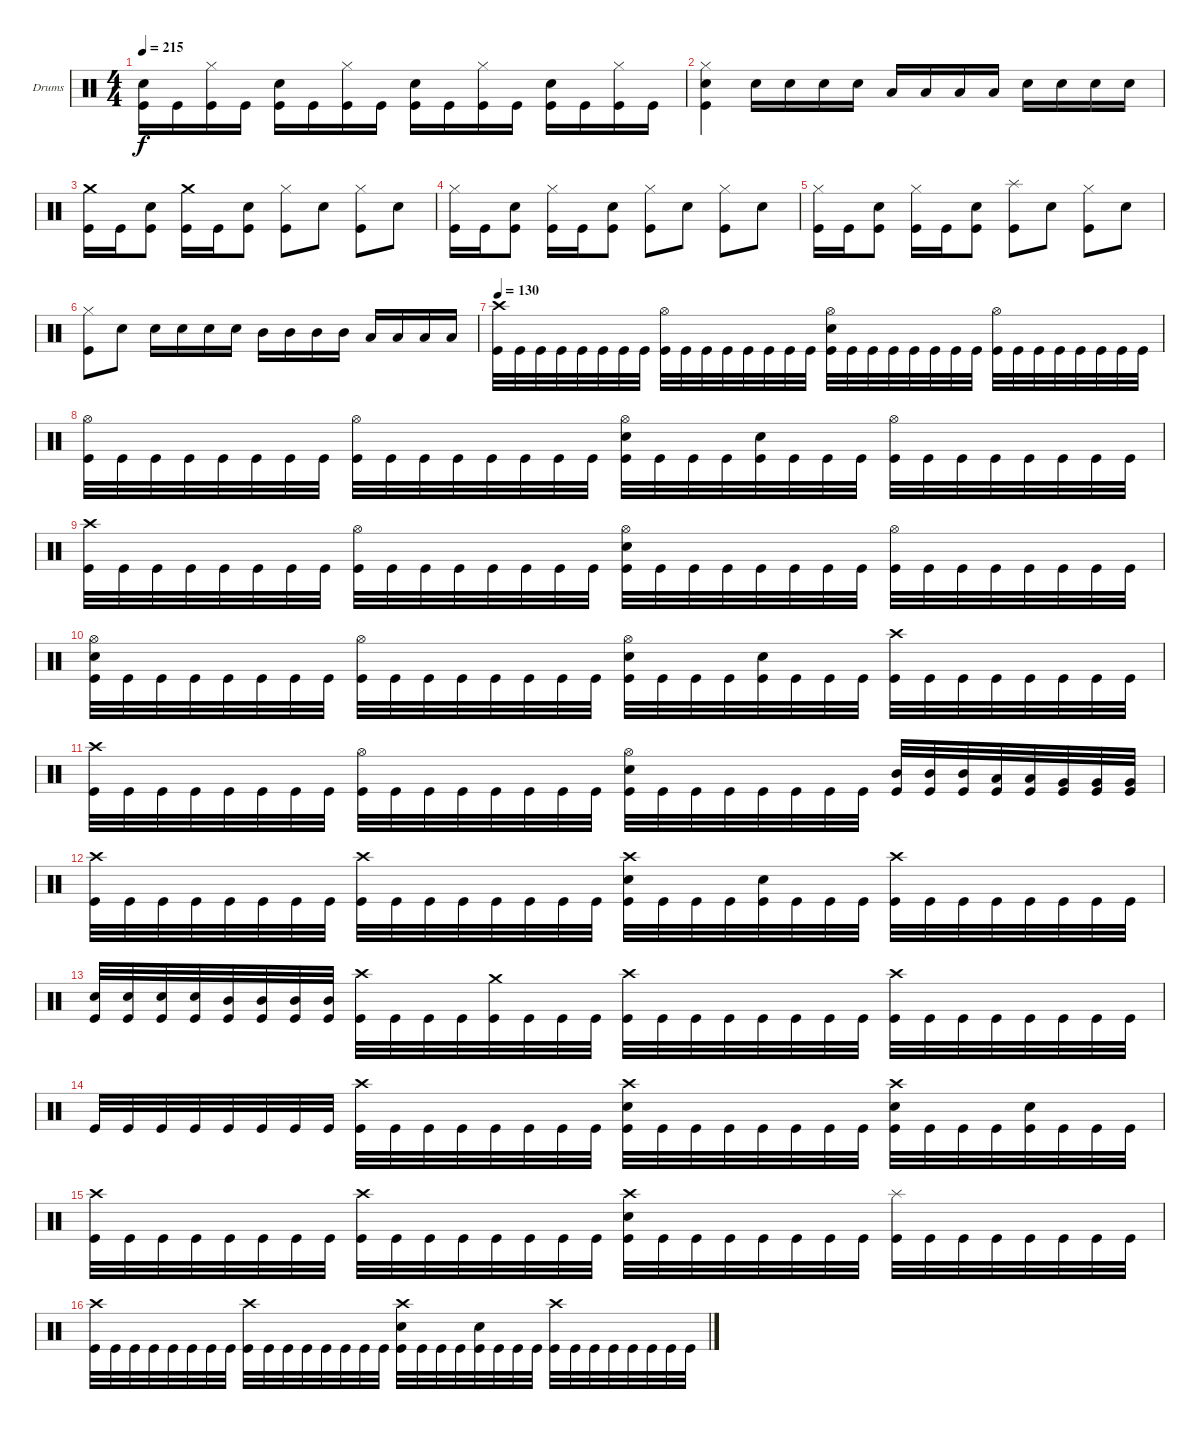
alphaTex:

\defaultSystemsLayout 4
\bracketExtendMode groupsimilarinstruments
\firstSystemTrackNameOrientation horizontal
\otherSystemsTrackNameOrientation horizontal
\track ("Trey Williams" "Drums") {instrument percussion}
\staff {score}
\articulation defaults
\ts (4 4)
\tempo 215
\clef neutral
\ks c
("Kick (hit)" "Snare (hit) 2").16{dy f} "Kick (hit)".16 ("Kick (hit)" "Hi-Hat (closed)").16 "Kick (hit)".16 ("Kick (hit)" "Snare (hit) 2").16 "Kick (hit)".16 ("Kick (hit)" "Hi-Hat (closed)").16 "Kick (hit)".16 ("Kick (hit)" "Snare (hit) 2").16 "Kick (hit)".16 ("Kick (hit)" "Hi-Hat (closed)").16 "Kick (hit)".16 ("Kick (hit)" "Snare (hit) 2").16 "Kick (hit)".16 ("Kick (hit)" "Hi-Hat (closed)").16 "Kick (hit)".16 |
("Kick (hit)" "Snare (hit) 2" "Hi-Hat (closed)").4 "Snare (hit) 2".16 "Snare (hit) 2".16 "Snare (hit) 2".16 "Snare (hit) 2".16 "Low Tom (hit)".16 "Low Tom (hit)".16 "Low Tom (hit)".16 "Low Tom (hit)".16 "Snare (hit) 2".16 "Snare (hit) 2".16 "Snare (hit) 2".16 "Snare (hit) 2".16 |
("Kick (hit)" "Crash medium (hit)").16 "Kick (hit)".16 ("Kick (hit)" "Snare (hit) 2").8 ("Kick (hit)" "Crash medium (hit)").16 "Kick (hit)".16 ("Kick (hit)" "Snare (hit) 2").8 ("Hi-Hat (closed)" "Kick (hit)").8 "Snare (hit) 2".8 ("Hi-Hat (closed)" "Kick (hit)").8 "Snare (hit) 2".8 |
("Kick (hit)" "Hi-Hat (closed)").16 "Kick (hit)".16 ("Kick (hit)" "Snare (hit) 2").8 ("Kick (hit)" "Hi-Hat (closed)").16 "Kick (hit)".16 ("Kick (hit)" "Snare (hit) 2").8 ("Hi-Hat (closed)" "Kick (hit)").8 "Snare (hit) 2".8 ("Hi-Hat (closed)" "Kick (hit)").8 "Snare (hit) 2".8 |
("Kick (hit)" "Hi-Hat (closed)").16 "Kick (hit)".16 ("Kick (hit)" "Snare (hit) 2").8 ("Kick (hit)" "Hi-Hat (closed)").16 "Kick (hit)".16 ("Kick (hit)" "Snare (hit) 2").8 ("Kick (hit)" "Splash (hit)").8 "Snare (hit) 2".8 ("Hi-Hat (closed)" "Kick (hit)").8 "Snare (hit) 2".8 |
("Kick (hit)" "Hi-Hat (closed)").8 "Snare (hit) 2".8 "Snare (hit) 2".16 "Snare (hit) 2".16 "Snare (hit) 2".16 "Snare (hit) 2".16 "Mid Tom (hit)".16 "Mid Tom (hit)".16 "Mid Tom (hit)".16 "Mid Tom (hit)".16 "Low Tom (hit)".16 "Low Tom (hit)".16 "Low Tom (hit)".16 "Low Tom (hit)".16 |
\tempo 130
("Kick (hit)" "Crash high (hit)").32 "Kick (hit)".32 "Kick (hit)".32 "Kick (hit)".32 "Kick (hit)".32 "Kick (hit)".32 "Kick (hit)".32 "Kick (hit)".32 ("Kick (hit)" "Hi-Hat (open)").32 "Kick (hit)".32 "Kick (hit)".32 "Kick (hit)".32 "Kick (hit)".32 "Kick (hit)".32 "Kick (hit)".32 "Kick (hit)".32 ("Kick (hit)" "Hi-Hat (open)" "Snare (hit) 2").32 "Kick (hit)".32 "Kick (hit)".32 "Kick (hit)".32 "Kick (hit)".32 "Kick (hit)".32 "Kick (hit)".32 "Kick (hit)".32 ("Kick (hit)" "Hi-Hat (open)").32 "Kick (hit)".32 "Kick (hit)".32 "Kick (hit)".32 "Kick (hit)".32 "Kick (hit)".32 "Kick (hit)".32 "Kick (hit)".32 |
("Kick (hit)" "Hi-Hat (open)").32 "Kick (hit)".32 "Kick (hit)".32 "Kick (hit)".32 "Kick (hit)".32 "Kick (hit)".32 "Kick (hit)".32 "Kick (hit)".32 ("Kick (hit)" "Hi-Hat (open)").32 "Kick (hit)".32 "Kick (hit)".32 "Kick (hit)".32 "Kick (hit)".32 "Kick (hit)".32 "Kick (hit)".32 "Kick (hit)".32 ("Kick (hit)" "Hi-Hat (open)" "Snare (hit) 2").32 "Kick (hit)".32 "Kick (hit)".32 "Kick (hit)".32 ("Kick (hit)" "Snare (hit) 2").32 "Kick (hit)".32 "Kick (hit)".32 "Kick (hit)".32 ("Kick (hit)" "Hi-Hat (open)").32 "Kick (hit)".32 "Kick (hit)".32 "Kick (hit)".32 "Kick (hit)".32 "Kick (hit)".32 "Kick (hit)".32 "Kick (hit)".32 |
("Kick (hit)" "Crash high (hit)").32 "Kick (hit)".32 "Kick (hit)".32 "Kick (hit)".32 "Kick (hit)".32 "Kick (hit)".32 "Kick (hit)".32 "Kick (hit)".32 ("Kick (hit)" "Hi-Hat (open)").32 "Kick (hit)".32 "Kick (hit)".32 "Kick (hit)".32 "Kick (hit)".32 "Kick (hit)".32 "Kick (hit)".32 "Kick (hit)".32 ("Kick (hit)" "Hi-Hat (open)" "Snare (hit) 2").32 "Kick (hit)".32 "Kick (hit)".32 "Kick (hit)".32 "Kick (hit)".32 "Kick (hit)".32 "Kick (hit)".32 "Kick (hit)".32 ("Kick (hit)" "Hi-Hat (open)").32 "Kick (hit)".32 "Kick (hit)".32 "Kick (hit)".32 "Kick (hit)".32 "Kick (hit)".32 "Kick (hit)".32 "Kick (hit)".32 |
("Kick (hit)" "Hi-Hat (open)" "Snare (hit) 2").32 "Kick (hit)".32 "Kick (hit)".32 "Kick (hit)".32 "Kick (hit)".32 "Kick (hit)".32 "Kick (hit)".32 "Kick (hit)".32 ("Kick (hit)" "Hi-Hat (open)").32 "Kick (hit)".32 "Kick (hit)".32 "Kick (hit)".32 "Kick (hit)".32 "Kick (hit)".32 "Kick (hit)".32 "Kick (hit)".32 ("Kick (hit)" "Hi-Hat (open)" "Snare (hit) 2").32 "Kick (hit)".32 "Kick (hit)".32 "Kick (hit)".32 ("Kick (hit)" "Snare (hit) 2").32 "Kick (hit)".32 "Kick (hit)".32 "Kick (hit)".32 ("Kick (hit)" "Crash high (hit)").32 "Kick (hit)".32 "Kick (hit)".32 "Kick (hit)".32 "Kick (hit)".32 "Kick (hit)".32 "Kick (hit)".32 "Kick (hit)".32 |
("Kick (hit)" "Crash high (hit)").32 "Kick (hit)".32 "Kick (hit)".32 "Kick (hit)".32 "Kick (hit)".32 "Kick (hit)".32 "Kick (hit)".32 "Kick (hit)".32 ("Kick (hit)" "Hi-Hat (open)").32 "Kick (hit)".32 "Kick (hit)".32 "Kick (hit)".32 "Kick (hit)".32 "Kick (hit)".32 "Kick (hit)".32 "Kick (hit)".32 ("Kick (hit)" "Hi-Hat (open)" "Snare (hit) 2").32 "Kick (hit)".32 "Kick (hit)".32 "Kick (hit)".32 "Kick (hit)".32 "Kick (hit)".32 "Kick (hit)".32 "Kick (hit)".32 ("Kick (hit)" "Mid Tom (hit)").32 ("Kick (hit)" "Mid Tom (hit)").32 ("Kick (hit)" "Mid Tom (hit)").32 ("Kick (hit)" "Low Tom (hit)").32 ("Kick (hit)" "Low Tom (hit)").32 ("Kick (hit)" "Very Low Tom (hit)").32 ("Kick (hit)" "Very Low Tom (hit)").32 ("Kick (hit)" "Very Low Tom (hit)").32 |
("Kick (hit)" "Crash high (hit)").32 "Kick (hit)".32 "Kick (hit)".32 "Kick (hit)".32 "Kick (hit)".32 "Kick (hit)".32 "Kick (hit)".32 "Kick (hit)".32 ("Kick (hit)" "Crash high (hit)").32 "Kick (hit)".32 "Kick (hit)".32 "Kick (hit)".32 "Kick (hit)".32 "Kick (hit)".32 "Kick (hit)".32 "Kick (hit)".32 ("Kick (hit)" "Snare (hit) 2" "Crash high (hit)").32 "Kick (hit)".32 "Kick (hit)".32 "Kick (hit)".32 ("Kick (hit)" "Snare (hit) 2").32 "Kick (hit)".32 "Kick (hit)".32 "Kick (hit)".32 ("Kick (hit)" "Crash high (hit)").32 "Kick (hit)".32 "Kick (hit)".32 "Kick (hit)".32 "Kick (hit)".32 "Kick (hit)".32 "Kick (hit)".32 "Kick (hit)".32 |
("Kick (hit)" "Snare (hit) 2").32 ("Kick (hit)" "Snare (hit) 2").32 ("Kick (hit)" "Snare (hit) 2").32 ("Kick (hit)" "Snare (hit) 2").32 ("Kick (hit)" "Mid Tom (hit)").32 ("Kick (hit)" "Mid Tom (hit)").32 ("Kick (hit)" "Mid Tom (hit)").32 ("Kick (hit)" "Mid Tom (hit)").32 ("Kick (hit)" "Crash high (hit)").32 "Kick (hit)".32 "Kick (hit)".32 "Kick (hit)".32 ("Kick (hit)" "Crash medium (hit)").32 "Kick (hit)".32 "Kick (hit)".32 "Kick (hit)".32 ("Kick (hit)" "Crash high (hit)").32 "Kick (hit)".32 "Kick (hit)".32 "Kick (hit)".32 "Kick (hit)".32 "Kick (hit)".32 "Kick (hit)".32 "Kick (hit)".32 ("Kick (hit)" "Crash high (hit)").32 "Kick (hit)".32 "Kick (hit)".32 "Kick (hit)".32 "Kick (hit)".32 "Kick (hit)".32 "Kick (hit)".32 "Kick (hit)".32 |
"Kick (hit)".32 "Kick (hit)".32 "Kick (hit)".32 "Kick (hit)".32 "Kick (hit)".32 "Kick (hit)".32 "Kick (hit)".32 "Kick (hit)".32 ("Kick (hit)" "Crash high (hit)").32 "Kick (hit)".32 "Kick (hit)".32 "Kick (hit)".32 "Kick (hit)".32 "Kick (hit)".32 "Kick (hit)".32 "Kick (hit)".32 ("Kick (hit)" "Snare (hit) 2" "Crash high (hit)").32 "Kick (hit)".32 "Kick (hit)".32 "Kick (hit)".32 "Kick (hit)".32 "Kick (hit)".32 "Kick (hit)".32 "Kick (hit)".32 ("Kick (hit)" "Crash high (hit)" "Snare (hit) 2").32 "Kick (hit)".32 "Kick (hit)".32 "Kick (hit)".32 ("Kick (hit)" "Snare (hit) 2").32 "Kick (hit)".32 "Kick (hit)".32 "Kick (hit)".32 |
("Kick (hit)" "Crash high (hit)").32 "Kick (hit)".32 "Kick (hit)".32 "Kick (hit)".32 "Kick (hit)".32 "Kick (hit)".32 "Kick (hit)".32 "Kick (hit)".32 ("Kick (hit)" "Crash high (hit)").32 "Kick (hit)".32 "Kick (hit)".32 "Kick (hit)".32 "Kick (hit)".32 "Kick (hit)".32 "Kick (hit)".32 "Kick (hit)".32 ("Kick (hit)" "Snare (hit) 2" "Crash high (hit)").32 "Kick (hit)".32 "Kick (hit)".32 "Kick (hit)".32 "Kick (hit)".32 "Kick (hit)".32 "Kick (hit)".32 "Kick (hit)".32 ("Kick (hit)" "Splash (hit)").32 "Kick (hit)".32 "Kick (hit)".32 "Kick (hit)".32 "Kick (hit)".32 "Kick (hit)".32 "Kick (hit)".32 "Kick (hit)".32 |
("Kick (hit)" "Crash high (hit)").32 "Kick (hit)".32 "Kick (hit)".32 "Kick (hit)".32 "Kick (hit)".32 "Kick (hit)".32 "Kick (hit)".32 "Kick (hit)".32 ("Kick (hit)" "Crash high (hit)").32 "Kick (hit)".32 "Kick (hit)".32 "Kick (hit)".32 "Kick (hit)".32 "Kick (hit)".32 "Kick (hit)".32 "Kick (hit)".32 ("Kick (hit)" "Snare (hit) 2" "Crash high (hit)").32 "Kick (hit)".32 "Kick (hit)".32 "Kick (hit)".32 ("Kick (hit)" "Snare (hit) 2").32 "Kick (hit)".32 "Kick (hit)".32 "Kick (hit)".32 ("Kick (hit)" "Crash high (hit)").32 "Kick (hit)".32 "Kick (hit)".32 "Kick (hit)".32 "Kick (hit)".32 "Kick (hit)".32 "Kick (hit)".32 "Kick (hit)".32
